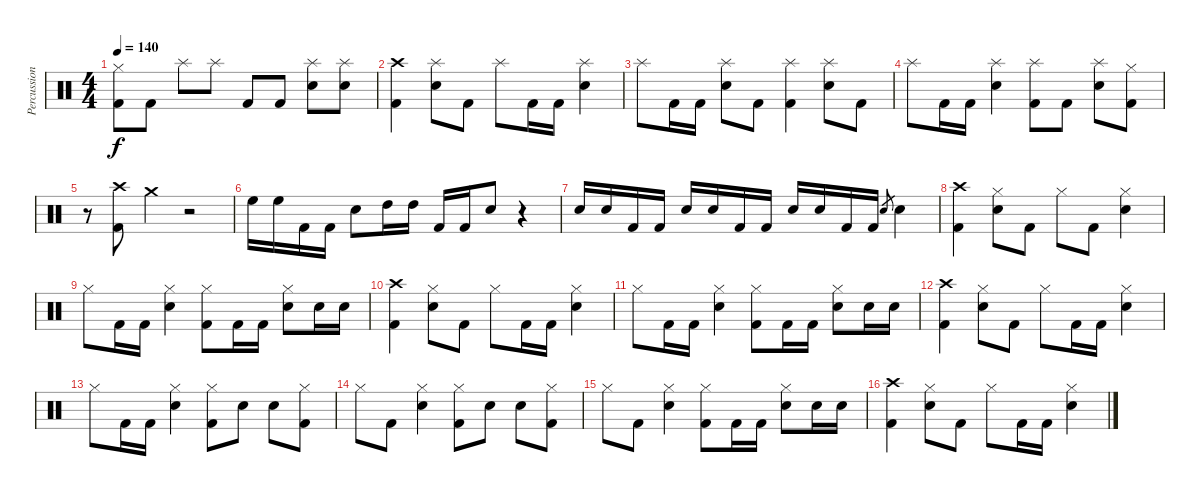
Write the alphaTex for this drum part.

\track ("Percussion" "Percussion") {instrument percussion}
\staff {score}
\articulation defaults
\ts (4 4)
\tempo 140
\clef neutral
\ks c
("Kick (hit) 2" "Hi-Hat (closed)").8{dy f} "Kick (hit) 2".8 "Splash (hit)".8 "Splash (hit)".8 "Kick (hit) 2".8 "Kick (hit) 2".8 ("Snare (hit) 2" "Splash (hit)").8 ("Snare (hit) 2" "Splash (hit)").8 |
("Kick (hit) 2" "Crash high (hit)").4 ("Snare (hit) 2" "Splash (hit)").8 "Kick (hit) 2".8 "Splash (hit)".8 "Kick (hit) 2".16 "Kick (hit) 2".16 ("Snare (hit) 2" "Splash (hit)").4 |
"Splash (hit)".8 "Kick (hit) 2".16 "Kick (hit) 2".16 ("Snare (hit) 2" "Splash (hit)").8 "Kick (hit) 2".8 ("Kick (hit) 2" "Splash (hit)").4 ("Snare (hit) 2" "Splash (hit)").8 "Kick (hit) 2".8 |
"Splash (hit)".8 "Kick (hit) 2".16 "Kick (hit) 2".16 ("Snare (hit) 2" "Splash (hit)").4 ("Kick (hit) 2" "Splash (hit)").8 "Kick (hit) 2".8 ("Snare (hit) 2" "Splash (hit)").8 ("Kick (hit) 2" "Hi-Hat (closed)").8 |
r.8 ("Kick (hit) 2" "Crash high (hit)").8 "Crash medium (hit)".4 r.2 |
"High Floor Tom (hit)".16 "High Floor Tom (hit)".16 "Kick (hit) 2".16 "Kick (hit) 2".16 "Snare (hit) 2".8 "High Tom (hit)".16 "High Tom (hit)".16 "Kick (hit) 2".16 "Kick (hit) 2".16 "Snare (hit) 2".8 r.4 |
"Snare (hit) 2".16 "Snare (hit) 2".16 "Kick (hit) 2".16 "Kick (hit) 2".16 "Snare (hit) 2".16 "Snare (hit) 2".16 "Kick (hit) 2".16 "Kick (hit) 2".16 "Snare (hit) 2".16 "Snare (hit) 2".16 "Kick (hit) 2".16 "Kick (hit) 2".16 "Snare (hit) 2".8{gr} "Snare (hit) 2".4 |
("Kick (hit) 2" "Crash high (hit)").4 ("Snare (hit) 2" "Hi-Hat (closed)").8 "Kick (hit) 2".8 "Hi-Hat (closed)".8 "Kick (hit) 2".8 ("Snare (hit) 2" "Hi-Hat (closed)").4 |
"Hi-Hat (closed)".8 "Kick (hit) 2".16 "Kick (hit) 2".16 ("Snare (hit) 2" "Hi-Hat (closed)").4 ("Kick (hit) 2" "Hi-Hat (closed)").8 "Kick (hit) 2".16 "Kick (hit) 2".16 ("Snare (hit) 2" "Hi-Hat (closed)").8 "Snare (hit) 2".16 "Snare (hit) 2".16 |
("Kick (hit) 2" "Crash high (hit)").4 ("Snare (hit) 2" "Hi-Hat (closed)").8 "Kick (hit) 2".8 "Hi-Hat (closed)".8 "Kick (hit) 2".16 "Kick (hit) 2".16 ("Snare (hit) 2" "Hi-Hat (closed)").4 |
"Hi-Hat (closed)".8 "Kick (hit) 2".16 "Kick (hit) 2".16 ("Snare (hit) 2" "Hi-Hat (closed)").4 ("Kick (hit) 2" "Hi-Hat (closed)").8 "Kick (hit) 2".16 "Kick (hit) 2".16 ("Snare (hit) 2" "Hi-Hat (closed)").8 "Snare (hit) 2".16 "Snare (hit) 2".16 |
("Kick (hit) 2" "Crash high (hit)").4 ("Snare (hit) 2" "Hi-Hat (closed)").8 "Kick (hit) 2".8 "Hi-Hat (closed)".8 "Kick (hit) 2".16 "Kick (hit) 2".16 ("Snare (hit) 2" "Hi-Hat (closed)").4 |
"Hi-Hat (closed)".8 "Kick (hit) 2".16 "Kick (hit) 2".16 ("Snare (hit) 2" "Hi-Hat (closed)").4 ("Kick (hit) 2" "Hi-Hat (closed)").8 "Snare (hit) 2".8 "Snare (hit) 2".8 ("Kick (hit) 2" "Hi-Hat (closed)").8 |
"Hi-Hat (closed)".8 "Kick (hit) 2".8 ("Snare (hit) 2" "Hi-Hat (closed)").4 ("Kick (hit) 2" "Hi-Hat (closed)").8 "Snare (hit) 2".8 "Snare (hit) 2".8 ("Kick (hit) 2" "Hi-Hat (closed)").8 |
"Hi-Hat (closed)".8 "Kick (hit) 2".8 ("Snare (hit) 2" "Hi-Hat (closed)").4 ("Kick (hit) 2" "Hi-Hat (closed)").8 "Kick (hit) 2".16 "Kick (hit) 2".16 ("Snare (hit) 2" "Hi-Hat (closed)").8 "Snare (hit) 2".16 "Snare (hit) 2".16 |
("Kick (hit) 2" "Crash high (hit)").4 ("Snare (hit) 2" "Hi-Hat (closed)").8 "Kick (hit) 2".8 "Hi-Hat (closed)".8 "Kick (hit) 2".16 "Kick (hit) 2".16 ("Snare (hit) 2" "Hi-Hat (closed)").4
